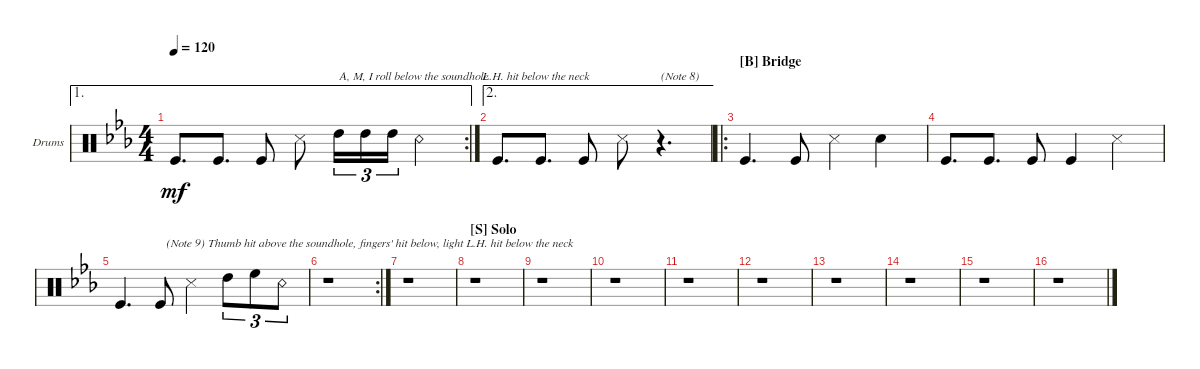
\defaultSystemsLayout 4
\bracketExtendMode groupsimilarinstruments
\firstSystemTrackNameOrientation horizontal
\otherSystemsTrackNameOrientation horizontal
\track ("Percussion" "Drums") {instrument percussion}
\staff {score}
\articulation defaults
\ae 1
\rc 2
\ts (4 4)
\tempo 120
\clef neutral
\ks eb "Kick (hit)".8{d dy mf} "Kick (hit)".8{d} "Kick (hit)".8 "Snare (side stick) 3".8{txt "             A, M, I roll below the soundhole"} "High Tom (hit)".16{tu (3 2)} "High Tom (hit)".16{tu (3 2)} "High Tom (hit)".16{tu (3 2)} "Snare (rim shot)".4{txt "                     L.H. hit below the neck"}
|
\ae 2 "Kick (hit)".8{d} "Kick (hit)".8{d} "Kick (hit)".8 "Snare (side stick) 3".8
r.4{d txt "(Note 8)"} |
\ro
\section ("B" "Bridge ")
"Kick (hit)".4{d} "Kick (hit)".8 "Snare (side stick) 3".4 "Snare (hit) 2".4 |
"Kick (hit)".8{d} "Kick (hit)".8{d} "Kick (hit)".8 "Kick (hit)".4 "Snare (side stick) 3".4 |
"Kick (hit)".4{d} "Kick (hit)".8{txt "  (Note 9) Thumb hit above the soundhole, fingers' hit below, light L.H. hit below the neck "} "Snare (side stick) 3".4 "High Tom (hit)".8{tu (3 2)} "High Floor Tom (hit)".8{tu (3 2)} "Snare (rim shot)".8{tu (3 2)} |
\rc 2
r.1 |
r.1 |
\section ("S" "Solo")
r.1 |
r.1 |
r.1 |
r.1 |
r.1 |
r.1 |
r.1 |
r.1 |
r.1
